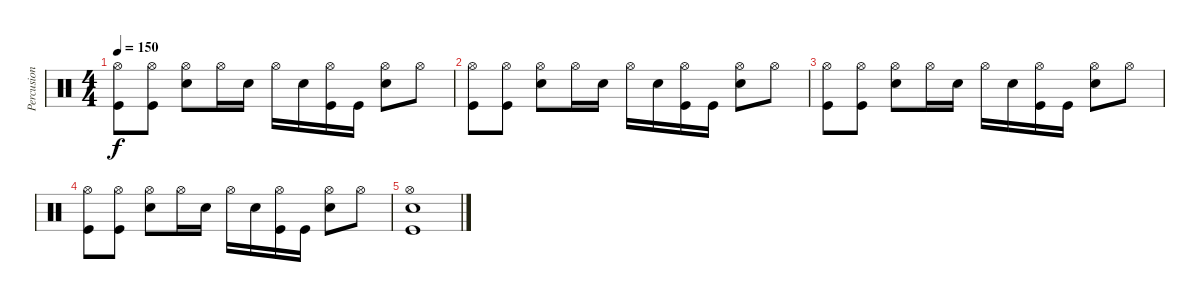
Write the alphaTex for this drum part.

\track ("Percusion" "Percusion") {instrument percussion}
\staff {score}
\articulation defaults
\ts (4 4)
\tempo 150
\clef neutral
\ks c
("Hi-Hat (open)" "Kick (hit)").8{dy f} ("Hi-Hat (open)" "Kick (hit)").8 ("Hi-Hat (open)" "Electric Snare (hit)").8 "Hi-Hat (open)".16 "Electric Snare (hit)".16 "Hi-Hat (open)".16 "Electric Snare (hit)".16 ("Hi-Hat (open)" "Kick (hit)").16 "Kick (hit)".16 ("Hi-Hat (open)" "Electric Snare (hit)").8 "Hi-Hat (open)".8 |
("Hi-Hat (open)" "Kick (hit)").8 ("Hi-Hat (open)" "Kick (hit)").8 ("Hi-Hat (open)" "Electric Snare (hit)").8 "Hi-Hat (open)".16 "Electric Snare (hit)".16 "Hi-Hat (open)".16 "Electric Snare (hit)".16 ("Hi-Hat (open)" "Kick (hit)").16 "Kick (hit)".16 ("Hi-Hat (open)" "Electric Snare (hit)").8 "Hi-Hat (open)".8 |
("Hi-Hat (open)" "Kick (hit)").8 ("Hi-Hat (open)" "Kick (hit)").8 ("Hi-Hat (open)" "Electric Snare (hit)").8 "Hi-Hat (open)".16 "Electric Snare (hit)".16 "Hi-Hat (open)".16 "Electric Snare (hit)".16 ("Hi-Hat (open)" "Kick (hit)").16 "Kick (hit)".16 ("Hi-Hat (open)" "Electric Snare (hit)").8 "Hi-Hat (open)".8 |
("Hi-Hat (open)" "Kick (hit)").8 ("Hi-Hat (open)" "Kick (hit)").8 ("Hi-Hat (open)" "Electric Snare (hit)").8 "Hi-Hat (open)".16 "Electric Snare (hit)".16 "Hi-Hat (open)".16 "Electric Snare (hit)".16 ("Hi-Hat (open)" "Kick (hit)").16 "Kick (hit)".16 ("Hi-Hat (open)" "Electric Snare (hit)").8 "Hi-Hat (open)".8 |
("Hi-Hat (open)" "Electric Snare (hit)" "Kick (hit)").1
